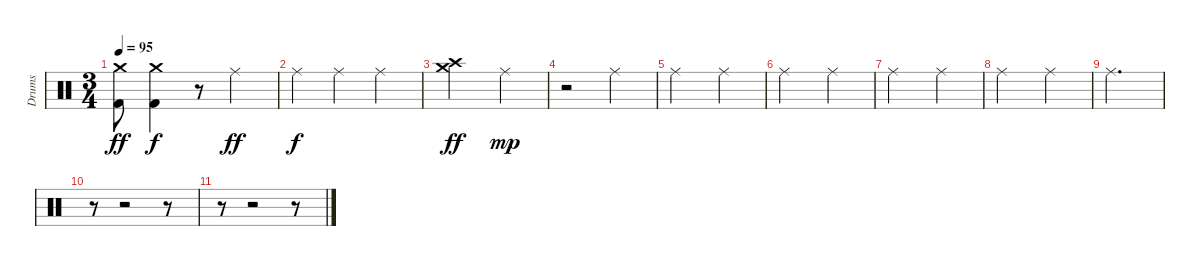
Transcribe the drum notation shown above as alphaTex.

\track ("Drums" "Drums") {instrument percussion}
\staff {score}
\articulation defaults
\ts (3 4)
\tempo 95
\clef neutral
\ks c
("Crash medium (hit)" "Kick (hit) 2").8{dy ff} ("Crash medium (hit)" "Kick (hit) 2").4{dy f} r.8 "Ride (middle)".4{dy ff} |
"Ride (middle)".4{dy f} "Ride (middle)".4 "Ride (middle)".4 |
("Crash medium (hit)" "Crash high (hit)").2{dy ff} "Ride (middle)".4{dy mp} |
r.2 "Ride (middle)".4 |
"Ride (middle)".2 "Ride (middle)".4 |
"Ride (middle)".2 "Ride (middle)".4 |
"Ride (middle)".2 "Ride (middle)".4 |
"Ride (middle)".2 "Ride (middle)".4 |
"Ride (middle)".2{d} |
r.8 r.2 r.8 |
r.8 r.2 r.8
